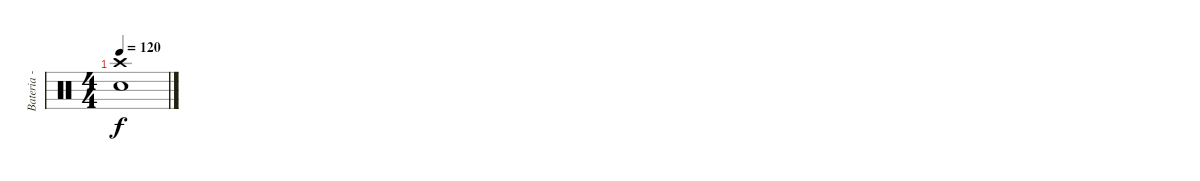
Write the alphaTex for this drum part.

\track ("Bateria - Marky" "Bateria - ") {instrument percussion}
\staff {score}
\articulation defaults
\ts (4 4)
\tempo 120
\clef neutral
\ks c
("Snare (hit) 2" "Crash high (hit)").1{dy f}
